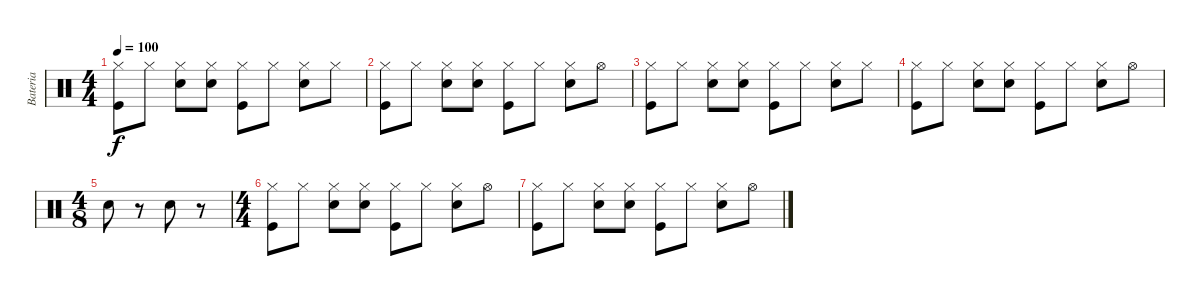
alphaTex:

\track ("Bateria" "Bateria") {instrument percussion}
\staff {score}
\articulation defaults
\ts (4 4)
\tempo 100
\clef neutral
\ks c
("Hi-Hat (closed)" "Kick (hit)").8{dy f} "Hi-Hat (closed)".8 ("Hi-Hat (closed)" "Snare (hit) 2").8 ("Hi-Hat (closed)" "Snare (hit) 2").8 ("Hi-Hat (closed)" "Kick (hit)").8 "Hi-Hat (closed)".8 ("Hi-Hat (closed)" "Snare (hit) 2").8 "Hi-Hat (closed)".8 |
("Hi-Hat (closed)" "Kick (hit)").8 "Hi-Hat (closed)".8 ("Hi-Hat (closed)" "Snare (hit) 2").8 ("Hi-Hat (closed)" "Snare (hit) 2").8 ("Hi-Hat (closed)" "Kick (hit)").8 "Hi-Hat (closed)".8 ("Hi-Hat (closed)" "Snare (hit) 2").8 "Hi-Hat (open)".8 |
("Hi-Hat (closed)" "Kick (hit)").8 "Hi-Hat (closed)".8 ("Hi-Hat (closed)" "Snare (hit) 2").8 ("Hi-Hat (closed)" "Snare (hit) 2").8 ("Hi-Hat (closed)" "Kick (hit)").8 "Hi-Hat (closed)".8 ("Hi-Hat (closed)" "Snare (hit) 2").8 "Hi-Hat (closed)".8 |
("Hi-Hat (closed)" "Kick (hit)").8 "Hi-Hat (closed)".8 ("Hi-Hat (closed)" "Snare (hit) 2").8 ("Hi-Hat (closed)" "Snare (hit) 2").8 ("Hi-Hat (closed)" "Kick (hit)").8 "Hi-Hat (closed)".8 ("Hi-Hat (closed)" "Snare (hit) 2").8 "Hi-Hat (open)".8 |
\ts (4 8)
"Snare (hit) 2".8 r.8 "Snare (hit) 2".8 r.8 |
\ts (4 4)
("Hi-Hat (closed)" "Kick (hit)").8 "Hi-Hat (closed)".8 ("Hi-Hat (closed)" "Snare (hit) 2").8 ("Hi-Hat (closed)" "Snare (hit) 2").8 ("Hi-Hat (closed)" "Kick (hit)").8 "Hi-Hat (closed)".8 ("Hi-Hat (closed)" "Snare (hit) 2").8 "Hi-Hat (open)".8 |
("Hi-Hat (closed)" "Kick (hit)").8 "Hi-Hat (closed)".8 ("Hi-Hat (closed)" "Snare (hit) 2").8 ("Hi-Hat (closed)" "Snare (hit) 2").8 ("Hi-Hat (closed)" "Kick (hit)").8 "Hi-Hat (closed)".8 ("Hi-Hat (closed)" "Snare (hit) 2").8 "Hi-Hat (open)".8
